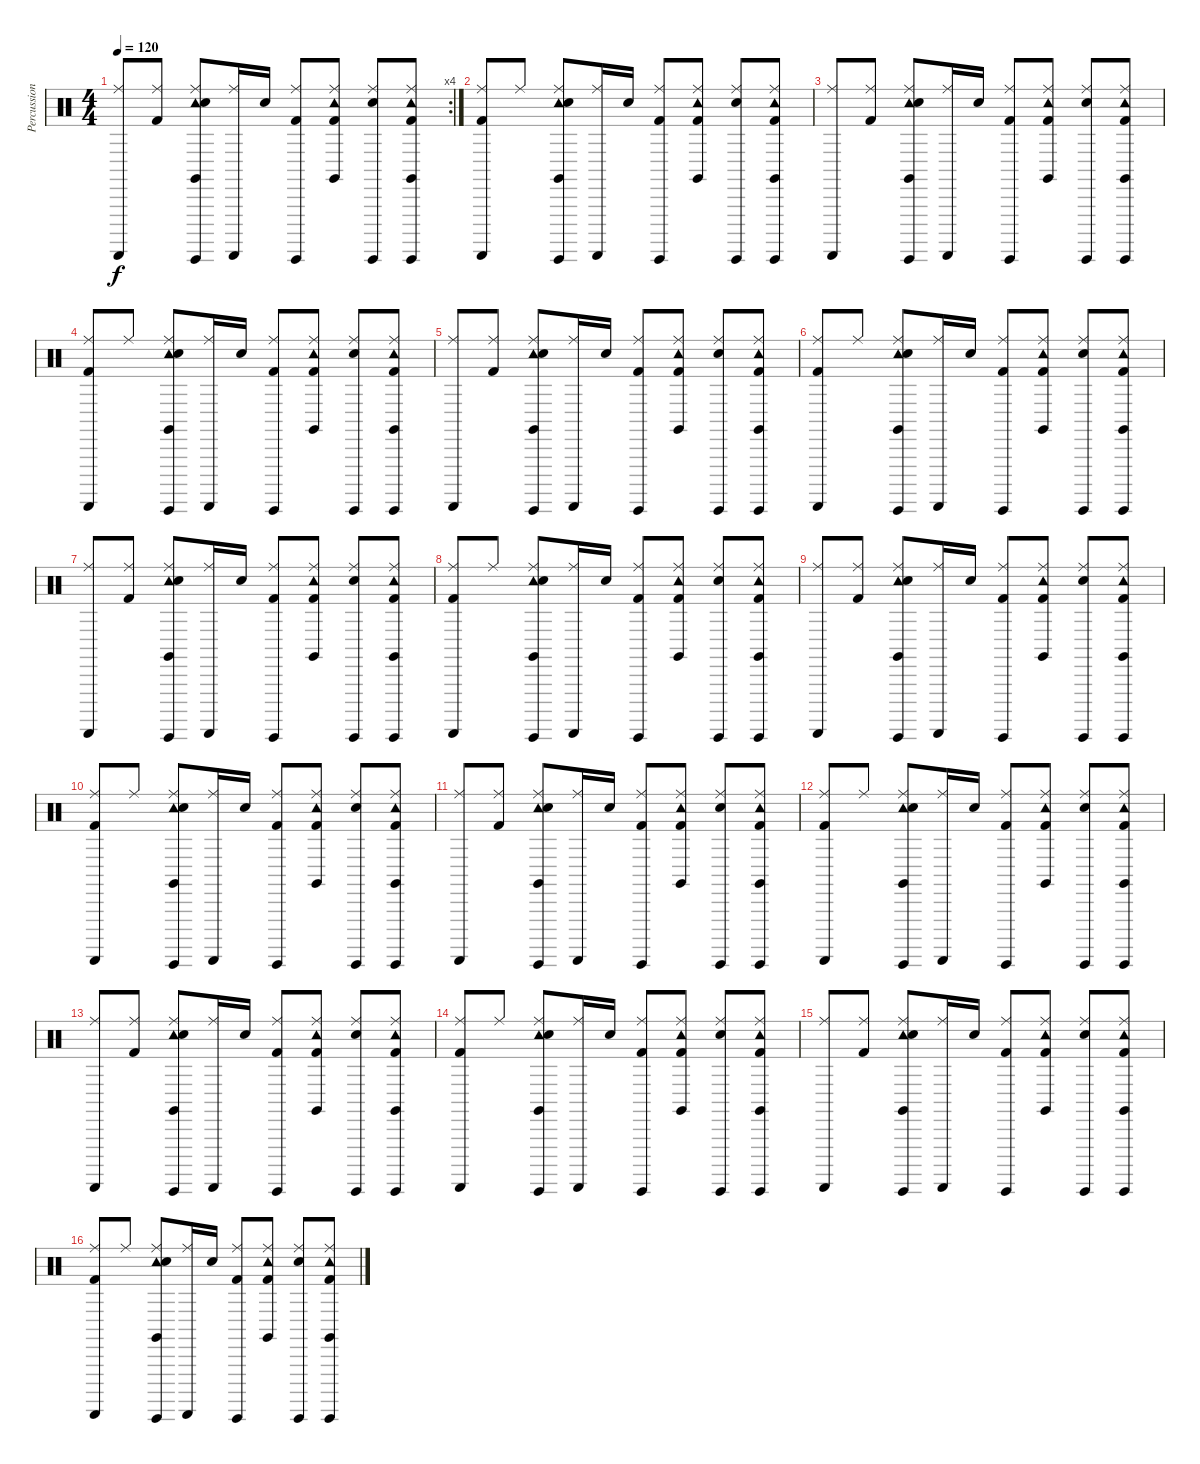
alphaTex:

\track ("Percussion" "Percussion") {instrument percussion}
\staff {score}
\articulation defaults
\rc 4
\ts (4 4)
\tempo 120
\clef neutral
\ks c
("Guiro (scrap-return)" "Ride (middle)").8{dy f} ("Ride (middle)" "Kick (hit) 2").8 ("Tambourine (hit)" "Guiro (hit)" "Claves (hit)" "Snare (hit) 2" "Ride (middle)").8 ("Guiro (scrap-return)" "Ride (middle)").16 "Snare (hit) 2".16 ("Guiro (hit)" "Kick (hit) 2" "Ride (middle)").8 ("Tambourine (hit)" "Claves (hit)" "Kick (hit) 2" "Ride (middle)").8 ("Guiro (hit)" "Snare (hit) 2" "Ride (middle)").8 ("Tambourine (hit)" "Guiro (hit)" "Claves (hit)" "Kick (hit) 2" "Ride (middle)").8 |
("Guiro (scrap-return)" "Ride (middle)" "Kick (hit) 2").8 "Ride (middle)".8 ("Tambourine (hit)" "Guiro (hit)" "Claves (hit)" "Snare (hit) 2" "Ride (middle)").8 ("Guiro (scrap-return)" "Ride (middle)").16 "Snare (hit) 2".16 ("Guiro (hit)" "Kick (hit) 2" "Ride (middle)").8 ("Tambourine (hit)" "Claves (hit)" "Kick (hit) 2" "Ride (middle)").8 ("Guiro (hit)" "Snare (hit) 2" "Ride (middle)").8 ("Tambourine (hit)" "Guiro (hit)" "Claves (hit)" "Kick (hit) 2" "Ride (middle)").8 |
("Guiro (scrap-return)" "Ride (middle)").8 ("Ride (middle)" "Kick (hit) 2").8 ("Tambourine (hit)" "Guiro (hit)" "Claves (hit)" "Snare (hit) 2" "Ride (middle)").8 ("Guiro (scrap-return)" "Ride (middle)").16 "Snare (hit) 2".16 ("Guiro (hit)" "Kick (hit) 2" "Ride (middle)").8 ("Tambourine (hit)" "Claves (hit)" "Kick (hit) 2" "Ride (middle)").8 ("Guiro (hit)" "Snare (hit) 2" "Ride (middle)").8 ("Tambourine (hit)" "Guiro (hit)" "Claves (hit)" "Kick (hit) 2" "Ride (middle)").8 |
("Guiro (scrap-return)" "Ride (middle)" "Kick (hit) 2").8 "Ride (middle)".8 ("Tambourine (hit)" "Guiro (hit)" "Claves (hit)" "Snare (hit) 2" "Ride (middle)").8 ("Guiro (scrap-return)" "Ride (middle)").16 "Snare (hit) 2".16 ("Guiro (hit)" "Kick (hit) 2" "Ride (middle)").8 ("Tambourine (hit)" "Claves (hit)" "Kick (hit) 2" "Ride (middle)").8 ("Guiro (hit)" "Snare (hit) 2" "Ride (middle)").8 ("Tambourine (hit)" "Guiro (hit)" "Claves (hit)" "Kick (hit) 2" "Ride (middle)").8 |
("Guiro (scrap-return)" "Ride (middle)").8 ("Ride (middle)" "Kick (hit) 2").8 ("Tambourine (hit)" "Guiro (hit)" "Claves (hit)" "Snare (hit) 2" "Ride (middle)").8 ("Guiro (scrap-return)" "Ride (middle)").16 "Snare (hit) 2".16 ("Guiro (hit)" "Kick (hit) 2" "Ride (middle)").8 ("Tambourine (hit)" "Claves (hit)" "Kick (hit) 2" "Ride (middle)").8 ("Guiro (hit)" "Snare (hit) 2" "Ride (middle)").8 ("Tambourine (hit)" "Guiro (hit)" "Claves (hit)" "Kick (hit) 2" "Ride (middle)").8 |
("Guiro (scrap-return)" "Ride (middle)" "Kick (hit) 2").8 "Ride (middle)".8 ("Tambourine (hit)" "Guiro (hit)" "Claves (hit)" "Snare (hit) 2" "Ride (middle)").8 ("Guiro (scrap-return)" "Ride (middle)").16 "Snare (hit) 2".16 ("Guiro (hit)" "Kick (hit) 2" "Ride (middle)").8 ("Tambourine (hit)" "Claves (hit)" "Kick (hit) 2" "Ride (middle)").8 ("Guiro (hit)" "Snare (hit) 2" "Ride (middle)").8 ("Tambourine (hit)" "Guiro (hit)" "Claves (hit)" "Kick (hit) 2" "Ride (middle)").8 |
("Guiro (scrap-return)" "Ride (middle)").8 ("Ride (middle)" "Kick (hit) 2").8 ("Tambourine (hit)" "Guiro (hit)" "Claves (hit)" "Snare (hit) 2" "Ride (middle)").8 ("Guiro (scrap-return)" "Ride (middle)").16 "Snare (hit) 2".16 ("Guiro (hit)" "Kick (hit) 2" "Ride (middle)").8 ("Tambourine (hit)" "Claves (hit)" "Kick (hit) 2" "Ride (middle)").8 ("Guiro (hit)" "Snare (hit) 2" "Ride (middle)").8 ("Tambourine (hit)" "Guiro (hit)" "Claves (hit)" "Kick (hit) 2" "Ride (middle)").8 |
("Guiro (scrap-return)" "Ride (middle)" "Kick (hit) 2").8 "Ride (middle)".8 ("Tambourine (hit)" "Guiro (hit)" "Claves (hit)" "Snare (hit) 2" "Ride (middle)").8 ("Guiro (scrap-return)" "Ride (middle)").16 "Snare (hit) 2".16 ("Guiro (hit)" "Kick (hit) 2" "Ride (middle)").8 ("Tambourine (hit)" "Claves (hit)" "Kick (hit) 2" "Ride (middle)").8 ("Guiro (hit)" "Snare (hit) 2" "Ride (middle)").8 ("Tambourine (hit)" "Guiro (hit)" "Claves (hit)" "Kick (hit) 2" "Ride (middle)").8 |
("Guiro (scrap-return)" "Ride (middle)").8 ("Ride (middle)" "Kick (hit) 2").8 ("Tambourine (hit)" "Guiro (hit)" "Claves (hit)" "Snare (hit) 2" "Ride (middle)").8 ("Guiro (scrap-return)" "Ride (middle)").16 "Snare (hit) 2".16 ("Guiro (hit)" "Kick (hit) 2" "Ride (middle)").8 ("Tambourine (hit)" "Claves (hit)" "Kick (hit) 2" "Ride (middle)").8 ("Guiro (hit)" "Snare (hit) 2" "Ride (middle)").8 ("Tambourine (hit)" "Guiro (hit)" "Claves (hit)" "Kick (hit) 2" "Ride (middle)").8 |
("Guiro (scrap-return)" "Ride (middle)" "Kick (hit) 2").8 "Ride (middle)".8 ("Tambourine (hit)" "Guiro (hit)" "Claves (hit)" "Snare (hit) 2" "Ride (middle)").8 ("Guiro (scrap-return)" "Ride (middle)").16 "Snare (hit) 2".16 ("Guiro (hit)" "Kick (hit) 2" "Ride (middle)").8 ("Tambourine (hit)" "Claves (hit)" "Kick (hit) 2" "Ride (middle)").8 ("Guiro (hit)" "Snare (hit) 2" "Ride (middle)").8 ("Tambourine (hit)" "Guiro (hit)" "Claves (hit)" "Kick (hit) 2" "Ride (middle)").8 |
("Guiro (scrap-return)" "Ride (middle)").8 ("Ride (middle)" "Kick (hit) 2").8 ("Tambourine (hit)" "Guiro (hit)" "Claves (hit)" "Snare (hit) 2" "Ride (middle)").8 ("Guiro (scrap-return)" "Ride (middle)").16 "Snare (hit) 2".16 ("Guiro (hit)" "Kick (hit) 2" "Ride (middle)").8 ("Tambourine (hit)" "Claves (hit)" "Kick (hit) 2" "Ride (middle)").8 ("Guiro (hit)" "Snare (hit) 2" "Ride (middle)").8 ("Tambourine (hit)" "Guiro (hit)" "Claves (hit)" "Kick (hit) 2" "Ride (middle)").8 |
("Guiro (scrap-return)" "Ride (middle)" "Kick (hit) 2").8 "Ride (middle)".8 ("Tambourine (hit)" "Guiro (hit)" "Claves (hit)" "Snare (hit) 2" "Ride (middle)").8 ("Guiro (scrap-return)" "Ride (middle)").16 "Snare (hit) 2".16 ("Guiro (hit)" "Kick (hit) 2" "Ride (middle)").8 ("Tambourine (hit)" "Claves (hit)" "Kick (hit) 2" "Ride (middle)").8 ("Guiro (hit)" "Snare (hit) 2" "Ride (middle)").8 ("Tambourine (hit)" "Guiro (hit)" "Claves (hit)" "Kick (hit) 2" "Ride (middle)").8 |
("Guiro (scrap-return)" "Ride (middle)").8 ("Ride (middle)" "Kick (hit) 2").8 ("Tambourine (hit)" "Guiro (hit)" "Claves (hit)" "Snare (hit) 2" "Ride (middle)").8 ("Guiro (scrap-return)" "Ride (middle)").16 "Snare (hit) 2".16 ("Guiro (hit)" "Kick (hit) 2" "Ride (middle)").8 ("Tambourine (hit)" "Claves (hit)" "Kick (hit) 2" "Ride (middle)").8 ("Guiro (hit)" "Snare (hit) 2" "Ride (middle)").8 ("Tambourine (hit)" "Guiro (hit)" "Claves (hit)" "Kick (hit) 2" "Ride (middle)").8 |
("Guiro (scrap-return)" "Ride (middle)" "Kick (hit) 2").8 "Ride (middle)".8 ("Tambourine (hit)" "Guiro (hit)" "Claves (hit)" "Snare (hit) 2" "Ride (middle)").8 ("Guiro (scrap-return)" "Ride (middle)").16 "Snare (hit) 2".16 ("Guiro (hit)" "Kick (hit) 2" "Ride (middle)").8 ("Tambourine (hit)" "Claves (hit)" "Kick (hit) 2" "Ride (middle)").8 ("Guiro (hit)" "Snare (hit) 2" "Ride (middle)").8 ("Tambourine (hit)" "Guiro (hit)" "Claves (hit)" "Kick (hit) 2" "Ride (middle)").8 |
("Guiro (scrap-return)" "Ride (middle)").8 ("Ride (middle)" "Kick (hit) 2").8 ("Tambourine (hit)" "Guiro (hit)" "Claves (hit)" "Snare (hit) 2" "Ride (middle)").8 ("Guiro (scrap-return)" "Ride (middle)").16 "Snare (hit) 2".16 ("Guiro (hit)" "Kick (hit) 2" "Ride (middle)").8 ("Tambourine (hit)" "Claves (hit)" "Kick (hit) 2" "Ride (middle)").8 ("Guiro (hit)" "Snare (hit) 2" "Ride (middle)").8 ("Tambourine (hit)" "Guiro (hit)" "Claves (hit)" "Kick (hit) 2" "Ride (middle)").8 |
("Guiro (scrap-return)" "Ride (middle)" "Kick (hit) 2").8 "Ride (middle)".8 ("Tambourine (hit)" "Guiro (hit)" "Claves (hit)" "Snare (hit) 2" "Ride (middle)").8 ("Guiro (scrap-return)" "Ride (middle)").16 "Snare (hit) 2".16 ("Guiro (hit)" "Kick (hit) 2" "Ride (middle)").8 ("Tambourine (hit)" "Claves (hit)" "Kick (hit) 2" "Ride (middle)").8 ("Guiro (hit)" "Snare (hit) 2" "Ride (middle)").8 ("Tambourine (hit)" "Guiro (hit)" "Claves (hit)" "Kick (hit) 2" "Ride (middle)").8
